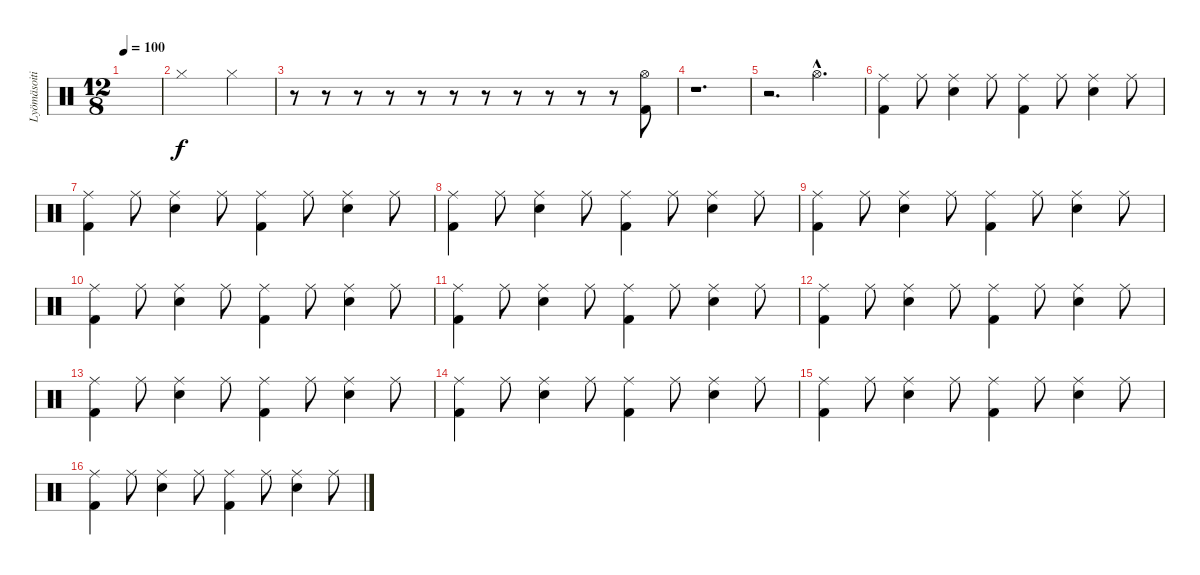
\track ("Lyömäsoitin" "Lyömäsoiti") {instrument percussion}
\staff {score}
\articulation defaults
\ts (12 8)
\tempo 100
\clef neutral
\ks c
|
"Hi-Hat (closed)".1 "Hi-Hat (closed)".2 |
r.8 r.8 r.8 r.8 r.8 r.8 r.8 r.8 r.8 r.8 r.8 ("Hi-Hat (open)" "Kick (hit) 2").8 |
r.1{d} |
r.2{d} "Hi-Hat (open)"{hac}.2{d} |
("Ride (middle)" "Kick (hit) 2").4 "Ride (middle)".8 ("Ride (middle)" "Snare (hit) 2").4 "Ride (middle)".8 ("Ride (middle)" "Kick (hit) 2").4 "Ride (middle)".8 ("Ride (middle)" "Snare (hit) 2").4 "Ride (middle)".8 |
("Ride (middle)" "Kick (hit) 2").4 "Ride (middle)".8 ("Ride (middle)" "Snare (hit) 2").4 "Ride (middle)".8 ("Ride (middle)" "Kick (hit) 2").4 "Ride (middle)".8 ("Ride (middle)" "Snare (hit) 2").4 "Ride (middle)".8 |
("Ride (middle)" "Kick (hit) 2").4 "Ride (middle)".8 ("Ride (middle)" "Snare (hit) 2").4 "Ride (middle)".8 ("Ride (middle)" "Kick (hit) 2").4 "Ride (middle)".8 ("Ride (middle)" "Snare (hit) 2").4 "Ride (middle)".8 |
("Ride (middle)" "Kick (hit) 2").4 "Ride (middle)".8 ("Ride (middle)" "Snare (hit) 2").4 "Ride (middle)".8 ("Ride (middle)" "Kick (hit) 2").4 "Ride (middle)".8 ("Ride (middle)" "Snare (hit) 2").4 "Ride (middle)".8 |
("Ride (middle)" "Kick (hit) 2").4 "Ride (middle)".8 ("Ride (middle)" "Snare (hit) 2").4 "Ride (middle)".8 ("Ride (middle)" "Kick (hit) 2").4 "Ride (middle)".8 ("Ride (middle)" "Snare (hit) 2").4 "Ride (middle)".8 |
("Ride (middle)" "Kick (hit) 2").4 "Ride (middle)".8 ("Ride (middle)" "Snare (hit) 2").4 "Ride (middle)".8 ("Ride (middle)" "Kick (hit) 2").4 "Ride (middle)".8 ("Ride (middle)" "Snare (hit) 2").4 "Ride (middle)".8 |
("Ride (middle)" "Kick (hit) 2").4 "Ride (middle)".8 ("Ride (middle)" "Snare (hit) 2").4 "Ride (middle)".8 ("Ride (middle)" "Kick (hit) 2").4 "Ride (middle)".8 ("Ride (middle)" "Snare (hit) 2").4 "Ride (middle)".8 |
("Ride (middle)" "Kick (hit) 2").4 "Ride (middle)".8 ("Ride (middle)" "Snare (hit) 2").4 "Ride (middle)".8 ("Ride (middle)" "Kick (hit) 2").4 "Ride (middle)".8 ("Ride (middle)" "Snare (hit) 2").4 "Ride (middle)".8 |
("Ride (middle)" "Kick (hit) 2").4 "Ride (middle)".8 ("Ride (middle)" "Snare (hit) 2").4 "Ride (middle)".8 ("Ride (middle)" "Kick (hit) 2").4 "Ride (middle)".8 ("Ride (middle)" "Snare (hit) 2").4 "Ride (middle)".8 |
("Ride (middle)" "Kick (hit) 2").4 "Ride (middle)".8 ("Ride (middle)" "Snare (hit) 2").4 "Ride (middle)".8 ("Ride (middle)" "Kick (hit) 2").4 "Ride (middle)".8 ("Ride (middle)" "Snare (hit) 2").4 "Ride (middle)".8 |
("Ride (middle)" "Kick (hit) 2").4 "Ride (middle)".8 ("Ride (middle)" "Snare (hit) 2").4 "Ride (middle)".8 ("Ride (middle)" "Kick (hit) 2").4 "Ride (middle)".8 ("Ride (middle)" "Snare (hit) 2").4 "Ride (middle)".8
